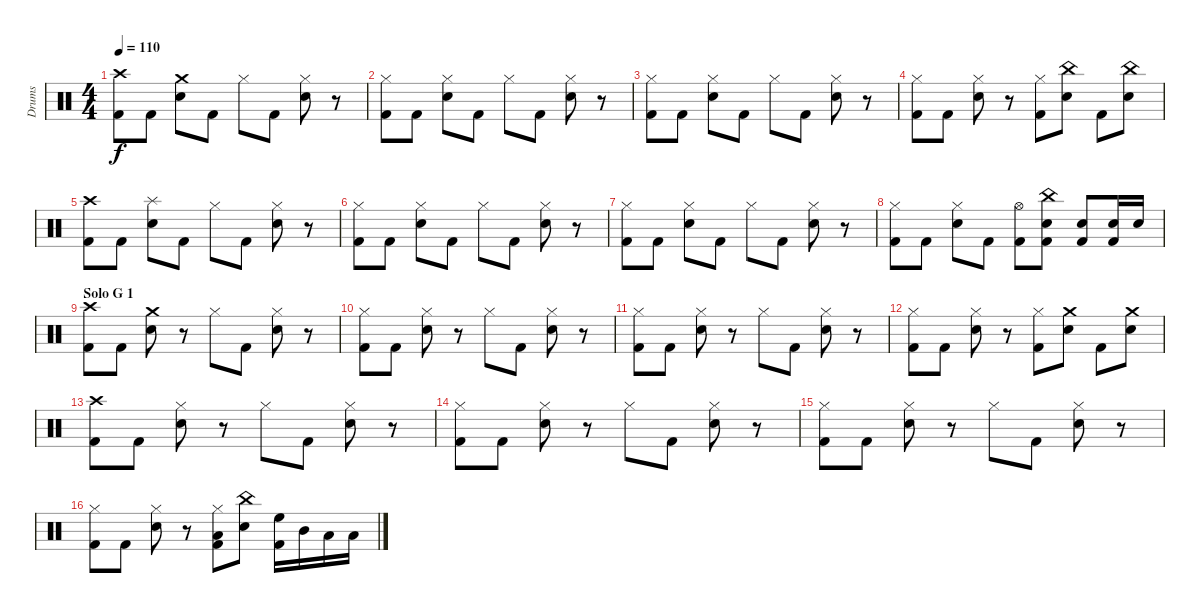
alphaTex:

\track ("Drums" "Drums") {instrument percussion}
\staff {score}
\articulation defaults
\ts (4 4)
\section ("" "")
\tempo 110
\clef neutral
\ks c
("Crash high (hit)" "Kick (hit) 2").8{dy f} "Kick (hit) 2".8 ("Crash medium (hit)" "Electric Snare (hit)").8 "Kick (hit) 2".8 "Hi-Hat (closed)".8 "Kick (hit) 2".8 ("Hi-Hat (closed)" "Electric Snare (hit)").8 r.8 |
("Hi-Hat (closed)" "Kick (hit) 2").8 "Kick (hit) 2".8 ("Hi-Hat (closed)" "Electric Snare (hit)").8 "Kick (hit) 2".8 "Hi-Hat (closed)".8 "Kick (hit) 2".8 ("Hi-Hat (closed)" "Electric Snare (hit)").8 r.8 |
("Hi-Hat (closed)" "Kick (hit) 2").8 "Kick (hit) 2".8 ("Hi-Hat (closed)" "Electric Snare (hit)").8 "Kick (hit) 2".8 "Hi-Hat (closed)".8 "Kick (hit) 2".8 ("Hi-Hat (closed)" "Electric Snare (hit)").8 r.8 |
("Hi-Hat (closed)" "Kick (hit) 2").8 "Kick (hit) 2".8 ("Hi-Hat (closed)" "Electric Snare (hit)").8 r.8 ("Hi-Hat (closed)" "Kick (hit) 2").8 ("China (hit)" "Electric Snare (hit)").8 "Kick (hit) 2".8 ("China (hit)" "Electric Snare (hit)").8 |
("Crash high (hit)" "Kick (hit) 2").8 "Kick (hit) 2".8 ("Splash (hit)" "Electric Snare (hit)").8 "Kick (hit) 2".8 "Hi-Hat (closed)".8 "Kick (hit) 2".8 ("Hi-Hat (closed)" "Electric Snare (hit)").8 r.8 |
("Hi-Hat (closed)" "Kick (hit) 2").8 "Kick (hit) 2".8 ("Hi-Hat (closed)" "Electric Snare (hit)").8 "Kick (hit) 2".8 "Hi-Hat (closed)".8 "Kick (hit) 2".8 ("Hi-Hat (closed)" "Electric Snare (hit)").8 r.8 |
("Hi-Hat (closed)" "Kick (hit) 2").8 "Kick (hit) 2".8 ("Hi-Hat (closed)" "Electric Snare (hit)").8 "Kick (hit) 2".8 "Hi-Hat (closed)".8 "Kick (hit) 2".8 ("Hi-Hat (closed)" "Electric Snare (hit)").8 r.8 |
("Hi-Hat (closed)" "Kick (hit) 2").8 "Kick (hit) 2".8 ("Hi-Hat (closed)" "Electric Snare (hit)").8 "Kick (hit) 2".8 ("Hi-Hat (open)" "Kick (hit) 2").8 ("China (hit)" "Electric Snare (hit)" "Kick (hit) 2").8 ("Electric Snare (hit)" "Kick (hit) 2").8 ("Electric Snare (hit)" "Kick (hit) 2").16 "Electric Snare (hit)".16 |
\section ("" "Solo G 1")
("Crash high (hit)" "Kick (hit) 2").8 "Kick (hit) 2".8 ("Crash medium (hit)" "Electric Snare (hit)").8 r.8 "Hi-Hat (closed)".8 "Kick (hit) 2".8 ("Hi-Hat (closed)" "Electric Snare (hit)").8 r.8 |
("Hi-Hat (closed)" "Kick (hit) 2").8 "Kick (hit) 2".8 ("Hi-Hat (closed)" "Electric Snare (hit)").8 r.8 "Hi-Hat (closed)".8 "Kick (hit) 2".8 ("Hi-Hat (closed)" "Electric Snare (hit)").8 r.8 |
("Hi-Hat (closed)" "Kick (hit) 2").8 "Kick (hit) 2".8 ("Hi-Hat (closed)" "Electric Snare (hit)").8 r.8 "Hi-Hat (closed)".8 "Kick (hit) 2".8 ("Hi-Hat (closed)" "Electric Snare (hit)").8 r.8 |
("Hi-Hat (closed)" "Kick (hit) 2").8 "Kick (hit) 2".8 ("Hi-Hat (closed)" "Electric Snare (hit)").8 r.8 ("Hi-Hat (closed)" "Kick (hit) 2").8 ("Crash medium (hit)" "Electric Snare (hit)").8 "Kick (hit) 2".8 ("Crash medium (hit)" "Electric Snare (hit)").8 |
("Crash high (hit)" "Kick (hit) 2").8 "Kick (hit) 2".8 ("Hi-Hat (closed)" "Electric Snare (hit)").8 r.8 "Hi-Hat (closed)".8 "Kick (hit) 2".8 ("Hi-Hat (closed)" "Electric Snare (hit)").8 r.8 |
("Hi-Hat (closed)" "Kick (hit) 2").8 "Kick (hit) 2".8 ("Hi-Hat (closed)" "Electric Snare (hit)").8 r.8 "Hi-Hat (closed)".8 "Kick (hit) 2".8 ("Hi-Hat (closed)" "Electric Snare (hit)").8 r.8 |
("Hi-Hat (closed)" "Kick (hit) 2").8 "Kick (hit) 2".8 ("Hi-Hat (closed)" "Electric Snare (hit)").8 r.8 "Hi-Hat (closed)".8 "Kick (hit) 2".8 ("Hi-Hat (closed)" "Electric Snare (hit)").8 r.8 |
("Hi-Hat (closed)" "Kick (hit) 2").8 "Kick (hit) 2".8 ("Hi-Hat (closed)" "Electric Snare (hit)").8 r.8 ("Hi-Hat (closed)" "Low Tom (hit)" "Kick (hit) 2").8 ("China (hit)" "Electric Snare (hit)").8 ("High Floor Tom (hit)" "Kick (hit) 2").16 "Mid Tom (hit)".16 "Low Tom (hit)".16 "Low Floor Tom (hit)".16
